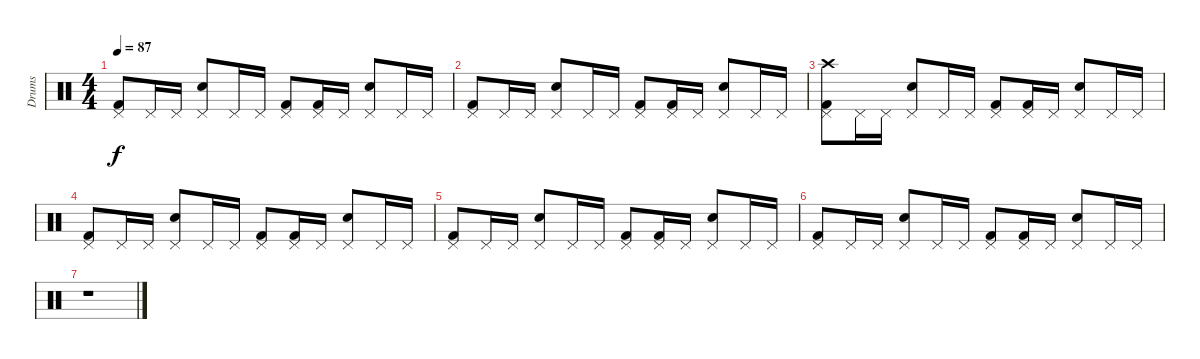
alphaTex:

\track ("Drums" "Drums") {instrument percussion}
\staff {score}
\articulation defaults
\ts (4 4)
\tempo 87
\clef neutral
\ks c
("Kick (hit) 2" "Pedal Hi-Hat (hit)").8{dy f} "Pedal Hi-Hat (hit)".16 "Pedal Hi-Hat (hit)".16 ("Snare (hit) 2" "Pedal Hi-Hat (hit)").8 "Pedal Hi-Hat (hit)".16 "Pedal Hi-Hat (hit)".16 ("Kick (hit) 2" "Pedal Hi-Hat (hit)").8 ("Kick (hit) 2" "Pedal Hi-Hat (hit)").16 "Pedal Hi-Hat (hit)".16 ("Snare (hit) 2" "Pedal Hi-Hat (hit)").8 "Pedal Hi-Hat (hit)".16 "Pedal Hi-Hat (hit)".16 |
("Kick (hit) 2" "Pedal Hi-Hat (hit)").8 "Pedal Hi-Hat (hit)".16 "Pedal Hi-Hat (hit)".16 ("Snare (hit) 2" "Pedal Hi-Hat (hit)").8 "Pedal Hi-Hat (hit)".16 "Pedal Hi-Hat (hit)".16 ("Kick (hit) 2" "Pedal Hi-Hat (hit)").8 ("Kick (hit) 2" "Pedal Hi-Hat (hit)").16 "Pedal Hi-Hat (hit)".16 ("Snare (hit) 2" "Pedal Hi-Hat (hit)").8 "Pedal Hi-Hat (hit)".16 "Pedal Hi-Hat (hit)".16 |
("Kick (hit) 2" "Pedal Hi-Hat (hit)" "Crash high (hit)").8 "Pedal Hi-Hat (hit)".16 "Pedal Hi-Hat (hit)".16 ("Snare (hit) 2" "Pedal Hi-Hat (hit)").8 "Pedal Hi-Hat (hit)".16 "Pedal Hi-Hat (hit)".16 ("Kick (hit) 2" "Pedal Hi-Hat (hit)").8 ("Kick (hit) 2" "Pedal Hi-Hat (hit)").16 "Pedal Hi-Hat (hit)".16 ("Snare (hit) 2" "Pedal Hi-Hat (hit)").8 "Pedal Hi-Hat (hit)".16 "Pedal Hi-Hat (hit)".16 |
("Kick (hit) 2" "Pedal Hi-Hat (hit)").8 "Pedal Hi-Hat (hit)".16 "Pedal Hi-Hat (hit)".16 ("Snare (hit) 2" "Pedal Hi-Hat (hit)").8 "Pedal Hi-Hat (hit)".16 "Pedal Hi-Hat (hit)".16 ("Kick (hit) 2" "Pedal Hi-Hat (hit)").8 ("Kick (hit) 2" "Pedal Hi-Hat (hit)").16 "Pedal Hi-Hat (hit)".16 ("Snare (hit) 2" "Pedal Hi-Hat (hit)").8 "Pedal Hi-Hat (hit)".16 "Pedal Hi-Hat (hit)".16 |
("Kick (hit) 2" "Pedal Hi-Hat (hit)").8 "Pedal Hi-Hat (hit)".16 "Pedal Hi-Hat (hit)".16 ("Snare (hit) 2" "Pedal Hi-Hat (hit)").8 "Pedal Hi-Hat (hit)".16 "Pedal Hi-Hat (hit)".16 ("Kick (hit) 2" "Pedal Hi-Hat (hit)").8 ("Kick (hit) 2" "Pedal Hi-Hat (hit)").16 "Pedal Hi-Hat (hit)".16 ("Snare (hit) 2" "Pedal Hi-Hat (hit)").8 "Pedal Hi-Hat (hit)".16 "Pedal Hi-Hat (hit)".16 |
("Kick (hit) 2" "Pedal Hi-Hat (hit)").8 "Pedal Hi-Hat (hit)".16 "Pedal Hi-Hat (hit)".16 ("Snare (hit) 2" "Pedal Hi-Hat (hit)").8 "Pedal Hi-Hat (hit)".16 "Pedal Hi-Hat (hit)".16 ("Kick (hit) 2" "Pedal Hi-Hat (hit)").8 ("Kick (hit) 2" "Pedal Hi-Hat (hit)").16 "Pedal Hi-Hat (hit)".16 ("Snare (hit) 2" "Pedal Hi-Hat (hit)").8 "Pedal Hi-Hat (hit)".16 "Pedal Hi-Hat (hit)".16 |
r.1
